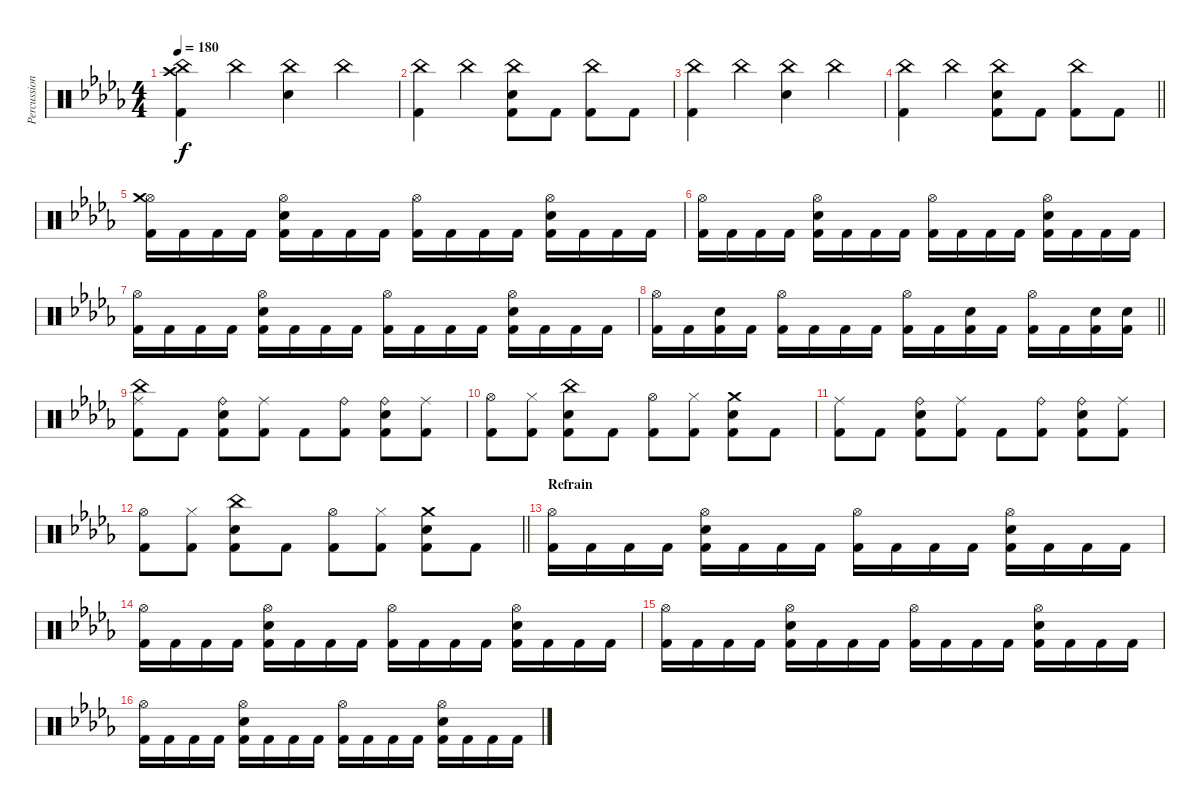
\track ("Percussions" "Percussion") {instrument percussion}
\staff {score}
\articulation defaults
\ts (4 4)
\tempo 180
\clef neutral
\ks bbminor
("China (hit)" "Crash high (hit)" "Kick (hit) 2").4{dy f} "China (hit)".4 ("China (hit)" "Electric Snare (hit)").4 "China (hit)".4 |
("China (hit)" "Kick (hit) 2").4 "China (hit)".4 ("China (hit)" "Electric Snare (hit)" "Kick (hit) 2").8 "Kick (hit) 2".8 ("China (hit)" "Kick (hit) 2").8 "Kick (hit) 2".8 |
("China (hit)" "Kick (hit) 2").4 "China (hit)".4 ("China (hit)" "Electric Snare (hit)").4 "China (hit)".4 |
\barLineRight lightlight
("China (hit)" "Kick (hit) 2").4 "China (hit)".4 ("China (hit)" "Electric Snare (hit)" "Kick (hit) 2").8 "Kick (hit) 2".8 ("China (hit)" "Kick (hit) 2").8 "Kick (hit) 2".8 |
("Hi-Hat (open)" "Crash medium (hit)" "Kick (hit) 2").16 "Kick (hit) 2".16 "Kick (hit) 2".16 "Kick (hit) 2".16 ("Hi-Hat (open)" "Electric Snare (hit)" "Kick (hit) 2").16 "Kick (hit) 2".16 "Kick (hit) 2".16 "Kick (hit) 2".16 ("Hi-Hat (open)" "Kick (hit) 2").16 "Kick (hit) 2".16 "Kick (hit) 2".16 "Kick (hit) 2".16 ("Hi-Hat (open)" "Electric Snare (hit)" "Kick (hit) 2").16 "Kick (hit) 2".16 "Kick (hit) 2".16 "Kick (hit) 2".16 |
("Hi-Hat (open)" "Kick (hit) 2").16 "Kick (hit) 2".16 "Kick (hit) 2".16 "Kick (hit) 2".16 ("Hi-Hat (open)" "Electric Snare (hit)" "Kick (hit) 2").16 "Kick (hit) 2".16 "Kick (hit) 2".16 "Kick (hit) 2".16 ("Hi-Hat (open)" "Kick (hit) 2").16 "Kick (hit) 2".16 "Kick (hit) 2".16 "Kick (hit) 2".16 ("Hi-Hat (open)" "Electric Snare (hit)" "Kick (hit) 2").16 "Kick (hit) 2".16 "Kick (hit) 2".16 "Kick (hit) 2".16 |
("Hi-Hat (open)" "Kick (hit) 2").16 "Kick (hit) 2".16 "Kick (hit) 2".16 "Kick (hit) 2".16 ("Hi-Hat (open)" "Electric Snare (hit)" "Kick (hit) 2").16 "Kick (hit) 2".16 "Kick (hit) 2".16 "Kick (hit) 2".16 ("Hi-Hat (open)" "Kick (hit) 2").16 "Kick (hit) 2".16 "Kick (hit) 2".16 "Kick (hit) 2".16 ("Hi-Hat (open)" "Electric Snare (hit)" "Kick (hit) 2").16 "Kick (hit) 2".16 "Kick (hit) 2".16 "Kick (hit) 2".16 |
\barLineRight lightlight
("Hi-Hat (open)" "Kick (hit) 2").16 "Kick (hit) 2".16 ("Electric Snare (hit)" "Kick (hit) 2").16 "Kick (hit) 2".16 ("Hi-Hat (open)" "Kick (hit) 2").16 "Kick (hit) 2".16 "Kick (hit) 2".16 "Kick (hit) 2".16 ("Hi-Hat (open)" "Kick (hit) 2").16 "Kick (hit) 2".16 ("Electric Snare (hit)" "Kick (hit) 2").16 "Kick (hit) 2".16 ("Hi-Hat (open)" "Kick (hit) 2").16 "Kick (hit) 2".16 ("Electric Snare (hit)" "Kick (hit) 2").16 ("Electric Snare (hit)" "Kick (hit) 2").16 |
("Ride (middle)" "China (hit)" "Kick (hit) 2").8 "Kick (hit) 2".8 ("Ride (bell)" "Electric Snare (hit)" "Kick (hit) 2").8 ("Ride (middle)" "Kick (hit) 2").8 "Kick (hit) 2".8 ("Ride (bell)" "Kick (hit) 2").8 ("Ride (bell)" "Electric Snare (hit)" "Kick (hit) 2").8 ("Ride (middle)" "Kick (hit) 2").8 |
("Hi-Hat (open)" "Kick (hit) 2").8 ("Hi-Hat (closed)" "Kick (hit) 2").8 ("China (hit)" "Electric Snare (hit)" "Kick (hit) 2").8 "Kick (hit) 2".8 ("Hi-Hat (open)" "Kick (hit) 2").8 ("Hi-Hat (closed)" "Kick (hit) 2").8 ("Crash medium (hit)" "Electric Snare (hit)" "Kick (hit) 2").8 "Kick (hit) 2".8 |
("Ride (middle)" "Kick (hit) 2").8 "Kick (hit) 2".8 ("Ride (bell)" "Electric Snare (hit)" "Kick (hit) 2").8 ("Ride (middle)" "Kick (hit) 2").8 "Kick (hit) 2".8 ("Ride (bell)" "Kick (hit) 2").8 ("Ride (bell)" "Electric Snare (hit)" "Kick (hit) 2").8 ("Ride (middle)" "Kick (hit) 2").8 |
\barLineRight lightlight
("Hi-Hat (open)" "Kick (hit) 2").8 ("Hi-Hat (closed)" "Kick (hit) 2").8 ("China (hit)" "Electric Snare (hit)" "Kick (hit) 2").8 "Kick (hit) 2".8 ("Hi-Hat (open)" "Kick (hit) 2").8 ("Hi-Hat (closed)" "Kick (hit) 2").8 ("Crash medium (hit)" "Electric Snare (hit)" "Kick (hit) 2").8 "Kick (hit) 2".8 |
\section ("" "Refrain")
("Hi-Hat (open)" "Kick (hit) 2").16 "Kick (hit) 2".16 "Kick (hit) 2".16 "Kick (hit) 2".16 ("Hi-Hat (open)" "Electric Snare (hit)" "Kick (hit) 2").16 "Kick (hit) 2".16 "Kick (hit) 2".16 "Kick (hit) 2".16 ("Hi-Hat (open)" "Kick (hit) 2").16 "Kick (hit) 2".16 "Kick (hit) 2".16 "Kick (hit) 2".16 ("Hi-Hat (open)" "Electric Snare (hit)" "Kick (hit) 2").16 "Kick (hit) 2".16 "Kick (hit) 2".16 "Kick (hit) 2".16 |
("Hi-Hat (open)" "Kick (hit) 2").16 "Kick (hit) 2".16 "Kick (hit) 2".16 "Kick (hit) 2".16 ("Hi-Hat (open)" "Electric Snare (hit)" "Kick (hit) 2").16 "Kick (hit) 2".16 "Kick (hit) 2".16 "Kick (hit) 2".16 ("Hi-Hat (open)" "Kick (hit) 2").16 "Kick (hit) 2".16 "Kick (hit) 2".16 "Kick (hit) 2".16 ("Hi-Hat (open)" "Electric Snare (hit)" "Kick (hit) 2").16 "Kick (hit) 2".16 "Kick (hit) 2".16 "Kick (hit) 2".16 |
("Hi-Hat (open)" "Kick (hit) 2").16 "Kick (hit) 2".16 "Kick (hit) 2".16 "Kick (hit) 2".16 ("Hi-Hat (open)" "Electric Snare (hit)" "Kick (hit) 2").16 "Kick (hit) 2".16 "Kick (hit) 2".16 "Kick (hit) 2".16 ("Hi-Hat (open)" "Kick (hit) 2").16 "Kick (hit) 2".16 "Kick (hit) 2".16 "Kick (hit) 2".16 ("Hi-Hat (open)" "Electric Snare (hit)" "Kick (hit) 2").16 "Kick (hit) 2".16 "Kick (hit) 2".16 "Kick (hit) 2".16 |
("Hi-Hat (open)" "Kick (hit) 2").16 "Kick (hit) 2".16 "Kick (hit) 2".16 "Kick (hit) 2".16 ("Hi-Hat (open)" "Electric Snare (hit)" "Kick (hit) 2").16 "Kick (hit) 2".16 "Kick (hit) 2".16 "Kick (hit) 2".16 ("Hi-Hat (open)" "Kick (hit) 2").16 "Kick (hit) 2".16 "Kick (hit) 2".16 "Kick (hit) 2".16 ("Hi-Hat (open)" "Electric Snare (hit)" "Kick (hit) 2").16 "Kick (hit) 2".16 "Kick (hit) 2".16 "Kick (hit) 2".16
